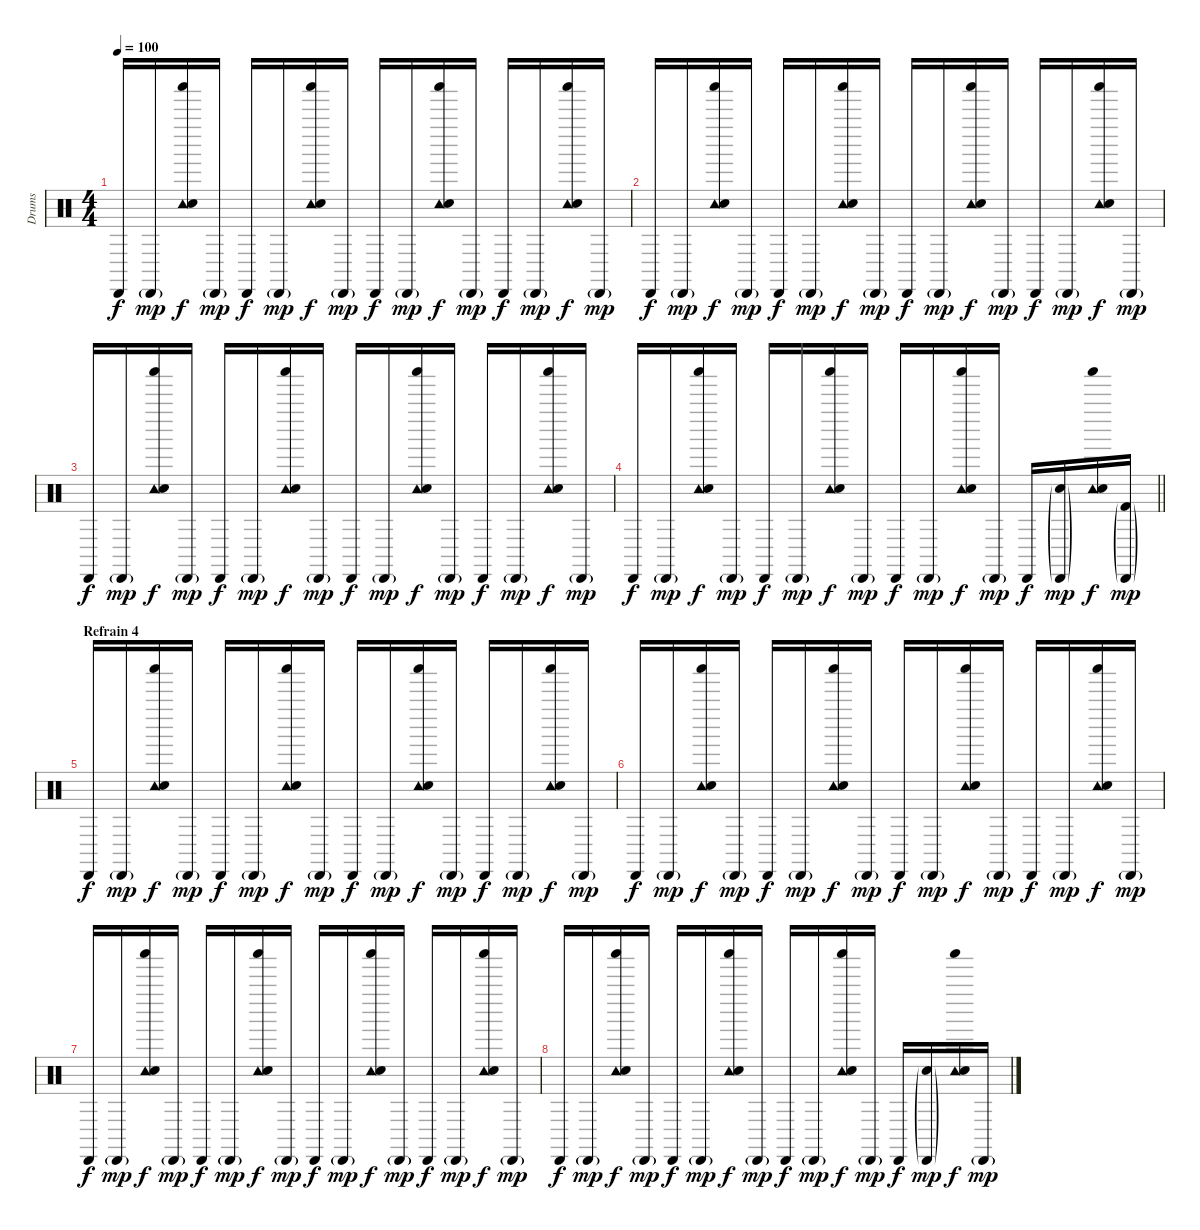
\track ("Drums" "Drums") {instrument percussion}
\staff {score}
\articulation defaults
\ts (4 4)
\tempo 100
\clef neutral
\ks c "Cabasa (hit)".16{dy f} "Cabasa (hit)"{g}.16{dy mp}
("Tambourine (hit)" "Shaker (hit)" "Electric Snare (hit)").16{dy f} "Cabasa (hit)"{g}.16{dy mp} "Cabasa (hit)".16{dy f} "Cabasa (hit)"{g}.16{dy mp} ("Tambourine (hit)" "Shaker (hit)" "Electric Snare (hit)").16{dy f} "Cabasa (hit)"{g}.16{dy mp} "Cabasa (hit)".16{dy f} "Cabasa (hit)"{g}.16{dy mp} ("Tambourine (hit)" "Shaker (hit)" "Electric Snare (hit)").16{dy f} "Cabasa (hit)"{g}.16{dy mp} "Cabasa (hit)".16{dy f} "Cabasa (hit)"{g}.16{dy mp} ("Tambourine (hit)" "Shaker (hit)" "Electric Snare (hit)").16{dy f} "Cabasa (hit)"{g}.16{dy mp} |
"Cabasa (hit)".16{dy f} "Cabasa (hit)"{g}.16{dy mp} ("Tambourine (hit)" "Shaker (hit)" "Electric Snare (hit)").16{dy f} "Cabasa (hit)"{g}.16{dy mp} "Cabasa (hit)".16{dy f} "Cabasa (hit)"{g}.16{dy mp} ("Tambourine (hit)" "Shaker (hit)" "Electric Snare (hit)").16{dy f} "Cabasa (hit)"{g}.16{dy mp} "Cabasa (hit)".16{dy f} "Cabasa (hit)"{g}.16{dy mp} ("Tambourine (hit)" "Shaker (hit)" "Electric Snare (hit)").16{dy f} "Cabasa (hit)"{g}.16{dy mp} "Cabasa (hit)".16{dy f} "Cabasa (hit)"{g}.16{dy mp} ("Tambourine (hit)" "Shaker (hit)" "Electric Snare (hit)").16{dy f} "Cabasa (hit)"{g}.16{dy mp} |
"Cabasa (hit)".16{dy f} "Cabasa (hit)"{g}.16{dy mp} ("Tambourine (hit)" "Shaker (hit)" "Electric Snare (hit)").16{dy f} "Cabasa (hit)"{g}.16{dy mp} "Cabasa (hit)".16{dy f} "Cabasa (hit)"{g}.16{dy mp} ("Tambourine (hit)" "Shaker (hit)" "Electric Snare (hit)").16{dy f} "Cabasa (hit)"{g}.16{dy mp} "Cabasa (hit)".16{dy f} "Cabasa (hit)"{g}.16{dy mp} ("Tambourine (hit)" "Shaker (hit)" "Electric Snare (hit)").16{dy f} "Cabasa (hit)"{g}.16{dy mp} "Cabasa (hit)".16{dy f} "Cabasa (hit)"{g}.16{dy mp} ("Tambourine (hit)" "Shaker (hit)" "Electric Snare (hit)").16{dy f} "Cabasa (hit)"{g}.16{dy mp} |
\barLineRight lightlight "Cabasa (hit)".16{dy f} "Cabasa (hit)"{g}.16{dy mp}
("Tambourine (hit)" "Shaker (hit)" "Electric Snare (hit)").16{dy f} "Cabasa (hit)"{g}.16{dy mp} "Cabasa (hit)".16{dy f} "Cabasa (hit)"{g}.16{dy mp} ("Tambourine (hit)" "Shaker (hit)" "Electric Snare (hit)").16{dy f} "Cabasa (hit)"{g}.16{dy mp} "Cabasa (hit)".16{dy f} "Cabasa (hit)"{g}.16{dy mp} ("Tambourine (hit)" "Shaker (hit)" "Electric Snare (hit)").16{dy f} "Cabasa (hit)"{g}.16{dy mp} "Cabasa (hit)".16{dy f} ("Cabasa (hit)"{g} "Electric Snare (hit)"{g}).16{dy mp} ("Tambourine (hit)" "Shaker (hit)" "Electric Snare (hit)").16{dy f} ("Cabasa (hit)"{g} "Kick (hit) 2"{g}).16{dy mp} |
\section ("" "Refrain 4")
"Cabasa (hit)".16{dy f} "Cabasa (hit)"{g}.16{dy mp} ("Tambourine (hit)" "Shaker (hit)" "Electric Snare (hit)").16{dy f} "Cabasa (hit)"{g}.16{dy mp} "Cabasa (hit)".16{dy f} "Cabasa (hit)"{g}.16{dy mp} ("Tambourine (hit)" "Shaker (hit)" "Electric Snare (hit)").16{dy f} "Cabasa (hit)"{g}.16{dy mp} "Cabasa (hit)".16{dy f} "Cabasa (hit)"{g}.16{dy mp} ("Tambourine (hit)" "Shaker (hit)" "Electric Snare (hit)").16{dy f} "Cabasa (hit)"{g}.16{dy mp} "Cabasa (hit)".16{dy f} "Cabasa (hit)"{g}.16{dy mp} ("Tambourine (hit)" "Shaker (hit)" "Electric Snare (hit)").16{dy f} "Cabasa (hit)"{g}.16{dy mp} |
"Cabasa (hit)".16{dy f} "Cabasa (hit)"{g}.16{dy mp} ("Tambourine (hit)" "Shaker (hit)" "Electric Snare (hit)").16{dy f} "Cabasa (hit)"{g}.16{dy mp} "Cabasa (hit)".16{dy f} "Cabasa (hit)"{g}.16{dy mp} ("Tambourine (hit)" "Shaker (hit)" "Electric Snare (hit)").16{dy f} "Cabasa (hit)"{g}.16{dy mp} "Cabasa (hit)".16{dy f} "Cabasa (hit)"{g}.16{dy mp} ("Tambourine (hit)" "Shaker (hit)" "Electric Snare (hit)").16{dy f} "Cabasa (hit)"{g}.16{dy mp} "Cabasa (hit)".16{dy f} "Cabasa (hit)"{g}.16{dy mp} ("Tambourine (hit)" "Shaker (hit)" "Electric Snare (hit)").16{dy f} "Cabasa (hit)"{g}.16{dy mp} |
"Cabasa (hit)".16{dy f} "Cabasa (hit)"{g}.16{dy mp} ("Tambourine (hit)" "Shaker (hit)" "Electric Snare (hit)").16{dy f} "Cabasa (hit)"{g}.16{dy mp} "Cabasa (hit)".16{dy f} "Cabasa (hit)"{g}.16{dy mp} ("Tambourine (hit)" "Shaker (hit)" "Electric Snare (hit)").16{dy f} "Cabasa (hit)"{g}.16{dy mp} "Cabasa (hit)".16{dy f} "Cabasa (hit)"{g}.16{dy mp} ("Tambourine (hit)" "Shaker (hit)" "Electric Snare (hit)").16{dy f} "Cabasa (hit)"{g}.16{dy mp} "Cabasa (hit)".16{dy f} "Cabasa (hit)"{g}.16{dy mp} ("Tambourine (hit)" "Shaker (hit)" "Electric Snare (hit)").16{dy f} "Cabasa (hit)"{g}.16{dy mp} |
"Cabasa (hit)".16{dy f} "Cabasa (hit)"{g}.16{dy mp} ("Tambourine (hit)" "Shaker (hit)" "Electric Snare (hit)").16{dy f} "Cabasa (hit)"{g}.16{dy mp} "Cabasa (hit)".16{dy f} "Cabasa (hit)"{g}.16{dy mp} ("Tambourine (hit)" "Shaker (hit)" "Electric Snare (hit)").16{dy f} "Cabasa (hit)"{g}.16{dy mp} "Cabasa (hit)".16{dy f} "Cabasa (hit)"{g}.16{dy mp} ("Tambourine (hit)" "Shaker (hit)" "Electric Snare (hit)").16{dy f} "Cabasa (hit)"{g}.16{dy mp} "Cabasa (hit)".16{dy f} ("Cabasa (hit)"{g} "Electric Snare (hit)"{g}).16{dy mp} ("Tambourine (hit)" "Shaker (hit)" "Electric Snare (hit)").16{dy f} "Cabasa (hit)"{g}.16{dy mp}
